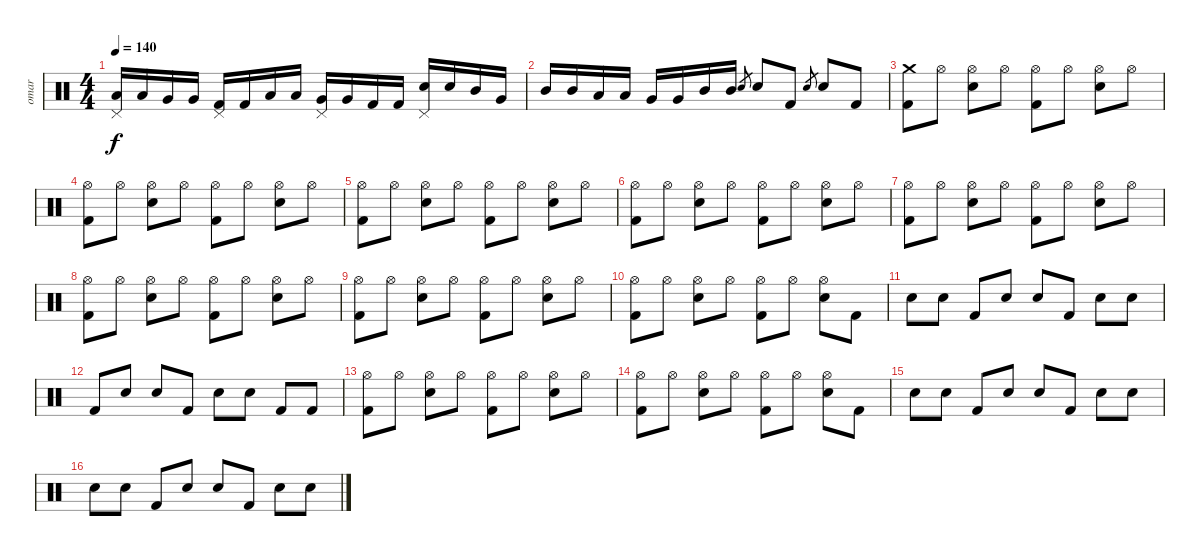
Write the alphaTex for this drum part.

\track ("omar" "omar") {instrument percussion}
\staff {score}
\articulation defaults
\ts (4 4)
\tempo 140
\clef neutral
\ks c
("Pedal Hi-Hat (hit)" "Low Tom (hit)").16{dy f} "Low Tom (hit)".16 "Very Low Tom (hit)".16 "Very Low Tom (hit)".16 ("Pedal Hi-Hat (hit)" "Kick (hit) 2").16 "Kick (hit) 2".16 "Low Tom (hit)".16 "Low Tom (hit)".16 ("Pedal Hi-Hat (hit)" "Very Low Tom (hit)").16 "Very Low Tom (hit)".16 "Kick (hit) 2".16 "Kick (hit) 2".16 ("Pedal Hi-Hat (hit)" "Electric Snare (hit)").16 "Electric Snare (hit)".16 "Mid Tom (hit)".16 "Very Low Tom (hit)".16 |
"Mid Tom (hit)".16 "Mid Tom (hit)".16 "Low Tom (hit)".16 "Low Tom (hit)".16 "Very Low Tom (hit)".16 "Very Low Tom (hit)".16 "Mid Tom (hit)".16 "Mid Tom (hit)".16 "Electric Snare (hit)".8{gr} "Electric Snare (hit)".8 "Kick (hit) 2".8 "Electric Snare (hit)".8{gr} "Electric Snare (hit)".8 "Kick (hit) 2".8 |
("Crash medium (hit)" "Kick (hit) 2").8 "Hi-Hat (open)".8 ("Hi-Hat (open)" "Electric Snare (hit)").8 "Hi-Hat (open)".8 ("Hi-Hat (open)" "Kick (hit) 2").8 "Hi-Hat (open)".8 ("Hi-Hat (open)" "Electric Snare (hit)").8 "Hi-Hat (open)".8 |
("Hi-Hat (open)" "Kick (hit) 2").8 "Hi-Hat (open)".8 ("Hi-Hat (open)" "Electric Snare (hit)").8 "Hi-Hat (open)".8 ("Hi-Hat (open)" "Kick (hit) 2").8 "Hi-Hat (open)".8 ("Hi-Hat (open)" "Electric Snare (hit)").8 "Hi-Hat (open)".8 |
("Hi-Hat (open)" "Kick (hit) 2").8 "Hi-Hat (open)".8 ("Hi-Hat (open)" "Electric Snare (hit)").8 "Hi-Hat (open)".8 ("Hi-Hat (open)" "Kick (hit) 2").8 "Hi-Hat (open)".8 ("Hi-Hat (open)" "Electric Snare (hit)").8 "Hi-Hat (open)".8 |
("Hi-Hat (open)" "Kick (hit) 2").8 "Hi-Hat (open)".8 ("Hi-Hat (open)" "Electric Snare (hit)").8 "Hi-Hat (open)".8 ("Hi-Hat (open)" "Kick (hit) 2").8 "Hi-Hat (open)".8 ("Hi-Hat (open)" "Electric Snare (hit)").8 "Hi-Hat (open)".8 |
("Hi-Hat (open)" "Kick (hit) 2").8 "Hi-Hat (open)".8 ("Hi-Hat (open)" "Electric Snare (hit)").8 "Hi-Hat (open)".8 ("Hi-Hat (open)" "Kick (hit) 2").8 "Hi-Hat (open)".8 ("Hi-Hat (open)" "Electric Snare (hit)").8 "Hi-Hat (open)".8 |
("Hi-Hat (open)" "Kick (hit) 2").8 "Hi-Hat (open)".8 ("Hi-Hat (open)" "Electric Snare (hit)").8 "Hi-Hat (open)".8 ("Hi-Hat (open)" "Kick (hit) 2").8 "Hi-Hat (open)".8 ("Hi-Hat (open)" "Electric Snare (hit)").8 "Hi-Hat (open)".8 |
("Hi-Hat (open)" "Kick (hit) 2").8 "Hi-Hat (open)".8 ("Hi-Hat (open)" "Electric Snare (hit)").8 "Hi-Hat (open)".8 ("Hi-Hat (open)" "Kick (hit) 2").8 "Hi-Hat (open)".8 ("Hi-Hat (open)" "Electric Snare (hit)").8 "Hi-Hat (open)".8 |
("Hi-Hat (open)" "Kick (hit) 2").8 "Hi-Hat (open)".8 ("Hi-Hat (open)" "Electric Snare (hit)").8 "Hi-Hat (open)".8 ("Hi-Hat (open)" "Kick (hit) 2").8 "Hi-Hat (open)".8 ("Hi-Hat (open)" "Electric Snare (hit)").8 "Kick (hit) 2".8 |
"Electric Snare (hit)".8 "Electric Snare (hit)".8 "Kick (hit) 2".8 "Electric Snare (hit)".8 "Electric Snare (hit)".8 "Kick (hit) 2".8 "Electric Snare (hit)".8 "Electric Snare (hit)".8 |
"Kick (hit) 2".8 "Electric Snare (hit)".8 "Electric Snare (hit)".8 "Kick (hit) 2".8 "Electric Snare (hit)".8 "Electric Snare (hit)".8 "Kick (hit) 2".8 "Kick (hit) 2".8 |
("Hi-Hat (open)" "Kick (hit) 2").8 "Hi-Hat (open)".8 ("Hi-Hat (open)" "Electric Snare (hit)").8 "Hi-Hat (open)".8 ("Hi-Hat (open)" "Kick (hit) 2").8 "Hi-Hat (open)".8 ("Hi-Hat (open)" "Electric Snare (hit)").8 "Hi-Hat (open)".8 |
("Hi-Hat (open)" "Kick (hit) 2").8 "Hi-Hat (open)".8 ("Hi-Hat (open)" "Electric Snare (hit)").8 "Hi-Hat (open)".8 ("Hi-Hat (open)" "Kick (hit) 2").8 "Hi-Hat (open)".8 ("Hi-Hat (open)" "Electric Snare (hit)").8 "Kick (hit) 2".8 |
"Electric Snare (hit)".8 "Electric Snare (hit)".8 "Kick (hit) 2".8 "Electric Snare (hit)".8 "Electric Snare (hit)".8 "Kick (hit) 2".8 "Electric Snare (hit)".8 "Electric Snare (hit)".8 |
"Electric Snare (hit)".8 "Electric Snare (hit)".8 "Kick (hit) 2".8 "Electric Snare (hit)".8 "Electric Snare (hit)".8 "Kick (hit) 2".8 "Electric Snare (hit)".8 "Electric Snare (hit)".8
